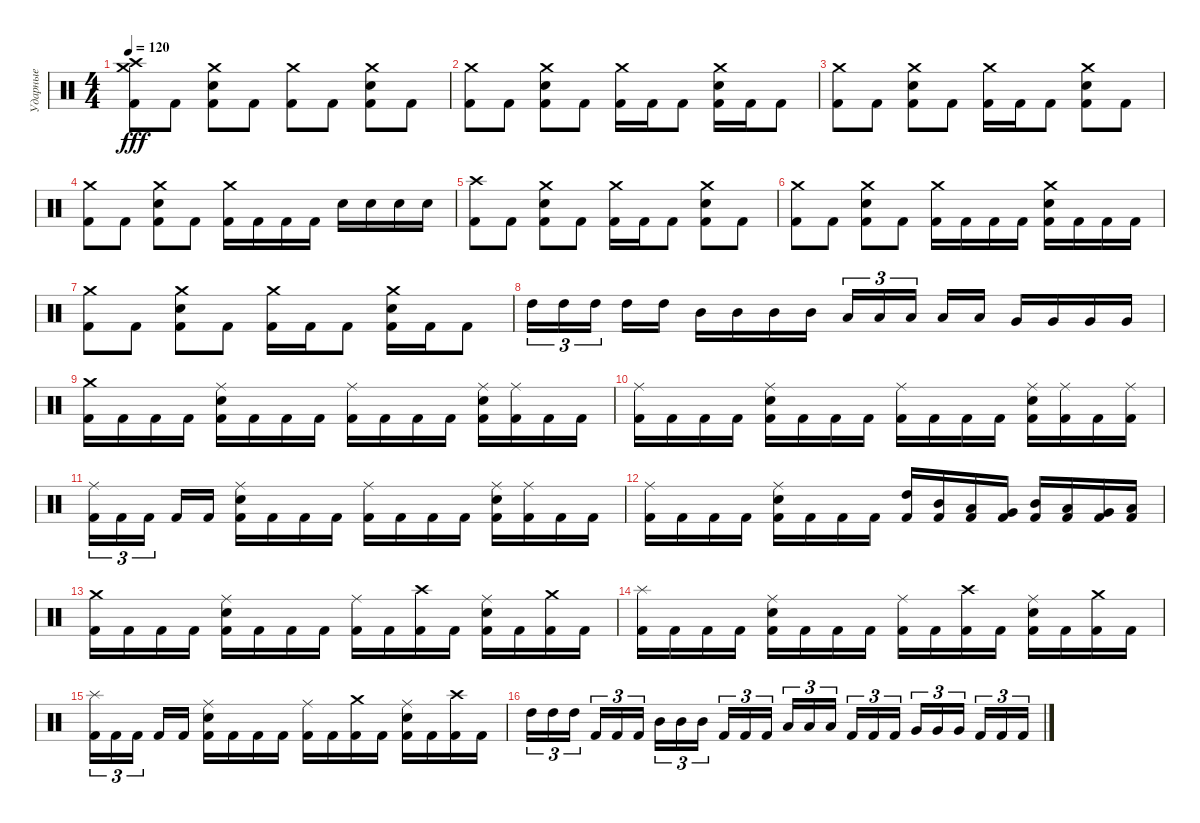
\track ("Ударные" "Ударные") {instrument percussion}
\staff {score}
\articulation defaults
\ts (4 4)
\tempo 120
\clef neutral
\ks c
("Crash high (hit)" "Crash medium (hit)" "Kick (hit) 2").8{dy fff} "Kick (hit) 2".8 ("Crash medium (hit)" "Electric Snare (hit)" "Kick (hit) 2").8 "Kick (hit) 2".8 ("Crash medium (hit)" "Kick (hit) 2").8 "Kick (hit) 2".8 ("Crash medium (hit)" "Electric Snare (hit)" "Kick (hit) 2").8 "Kick (hit) 2".8 |
("Crash medium (hit)" "Kick (hit) 2").8 "Kick (hit) 2".8 ("Crash medium (hit)" "Electric Snare (hit)" "Kick (hit) 2").8 "Kick (hit) 2".8 ("Crash medium (hit)" "Kick (hit) 2").16 "Kick (hit) 2".16 "Kick (hit) 2".8 ("Crash medium (hit)" "Electric Snare (hit)" "Kick (hit) 2").16 "Kick (hit) 2".16 "Kick (hit) 2".8 |
("Crash medium (hit)" "Kick (hit) 2").8 "Kick (hit) 2".8 ("Crash medium (hit)" "Electric Snare (hit)" "Kick (hit) 2").8 "Kick (hit) 2".8 ("Crash medium (hit)" "Kick (hit) 2").16 "Kick (hit) 2".16 "Kick (hit) 2".8 ("Crash medium (hit)" "Electric Snare (hit)" "Kick (hit) 2").8 "Kick (hit) 2".8 |
("Crash medium (hit)" "Kick (hit) 2").8 "Kick (hit) 2".8 ("Crash medium (hit)" "Electric Snare (hit)" "Kick (hit) 2").8 "Kick (hit) 2".8 ("Crash medium (hit)" "Kick (hit) 2").16 "Kick (hit) 2".16 "Kick (hit) 2".16 "Kick (hit) 2".16 "Electric Snare (hit)".16 "Electric Snare (hit)".16 "Electric Snare (hit)".16 "Electric Snare (hit)".16 |
("Crash high (hit)" "Kick (hit) 2").8 "Kick (hit) 2".8 ("Crash medium (hit)" "Electric Snare (hit)" "Kick (hit) 2").8 "Kick (hit) 2".8 ("Crash medium (hit)" "Kick (hit) 2").16 "Kick (hit) 2".16 "Kick (hit) 2".8 ("Crash medium (hit)" "Electric Snare (hit)" "Kick (hit) 2").8 "Kick (hit) 2".8 |
("Crash medium (hit)" "Kick (hit) 2").8 "Kick (hit) 2".8 ("Crash medium (hit)" "Electric Snare (hit)" "Kick (hit) 2").8 "Kick (hit) 2".8 ("Crash medium (hit)" "Kick (hit) 2").16 "Kick (hit) 2".16 "Kick (hit) 2".16 "Kick (hit) 2".16 ("Crash medium (hit)" "Electric Snare (hit)" "Kick (hit) 2").16 "Kick (hit) 2".16 "Kick (hit) 2".16 "Kick (hit) 2".16 |
("Crash medium (hit)" "Kick (hit) 2").8 "Kick (hit) 2".8 ("Crash medium (hit)" "Electric Snare (hit)" "Kick (hit) 2").8 "Kick (hit) 2".8 ("Crash medium (hit)" "Kick (hit) 2").16 "Kick (hit) 2".16 "Kick (hit) 2".8 ("Crash medium (hit)" "Electric Snare (hit)" "Kick (hit) 2").16 "Kick (hit) 2".16 "Kick (hit) 2".8 |
"High Tom (hit)".16{tu (3 2)} "High Tom (hit)".16{tu (3 2)} "High Tom (hit)".16{tu (3 2) beam splitsecondary} "High Tom (hit)".16 "High Tom (hit)".16 "Mid Tom (hit)".16 "Mid Tom (hit)".16 "Mid Tom (hit)".16 "Mid Tom (hit)".16 "Low Tom (hit)".16{tu (3 2)} "Low Tom (hit)".16{tu (3 2)} "Low Tom (hit)".16{tu (3 2) beam splitsecondary} "Low Tom (hit)".16 "Low Tom (hit)".16 "Very Low Tom (hit)".16 "Very Low Tom (hit)".16 "Very Low Tom (hit)".16 "Very Low Tom (hit)".16 |
("Crash medium (hit)" "Kick (hit) 2").16 "Kick (hit) 2".16 "Kick (hit) 2".16 "Kick (hit) 2".16 ("Ride (middle)" "Electric Snare (hit)" "Kick (hit) 2").16 "Kick (hit) 2".16 "Kick (hit) 2".16 "Kick (hit) 2".16 ("Ride (middle)" "Kick (hit) 2").16 "Kick (hit) 2".16 "Kick (hit) 2".16 "Kick (hit) 2".16 ("Ride (middle)" "Electric Snare (hit)" "Kick (hit) 2").16 ("Ride (middle)" "Kick (hit) 2").16 "Kick (hit) 2".16 "Kick (hit) 2".16 |
("Ride (middle)" "Kick (hit) 2").16 "Kick (hit) 2".16 "Kick (hit) 2".16 "Kick (hit) 2".16 ("Ride (middle)" "Electric Snare (hit)" "Kick (hit) 2").16 "Kick (hit) 2".16 "Kick (hit) 2".16 "Kick (hit) 2".16 ("Ride (middle)" "Kick (hit) 2").16 "Kick (hit) 2".16 "Kick (hit) 2".16 "Kick (hit) 2".16 ("Ride (middle)" "Electric Snare (hit)" "Kick (hit) 2").16 ("Ride (middle)" "Kick (hit) 2").16 "Kick (hit) 2".16 ("Ride (middle)" "Kick (hit) 2").16 |
("Ride (middle)" "Kick (hit) 2").16{tu (3 2)} "Kick (hit) 2".16{tu (3 2)} "Kick (hit) 2".16{tu (3 2) beam splitsecondary} "Kick (hit) 2".16 "Kick (hit) 2".16 ("Ride (middle)" "Electric Snare (hit)" "Kick (hit) 2").16 "Kick (hit) 2".16 "Kick (hit) 2".16 "Kick (hit) 2".16 ("Ride (middle)" "Kick (hit) 2").16 "Kick (hit) 2".16 "Kick (hit) 2".16 "Kick (hit) 2".16 ("Ride (middle)" "Electric Snare (hit)" "Kick (hit) 2").16 ("Ride (middle)" "Kick (hit) 2").16 "Kick (hit) 2".16 "Kick (hit) 2".16 |
("Ride (middle)" "Kick (hit) 2").16 "Kick (hit) 2".16 "Kick (hit) 2".16 "Kick (hit) 2".16 ("Ride (middle)" "Electric Snare (hit)" "Kick (hit) 2").16 "Kick (hit) 2".16 "Kick (hit) 2".16 "Kick (hit) 2".16 ("High Tom (hit)" "Kick (hit) 2").16 ("Mid Tom (hit)" "Kick (hit) 2").16 ("Low Tom (hit)" "Kick (hit) 2").16 ("Very Low Tom (hit)" "Kick (hit) 2").16 ("Mid Tom (hit)" "Kick (hit) 2").16 ("Low Tom (hit)" "Kick (hit) 2").16 ("Very Low Tom (hit)" "Kick (hit) 2").16 ("Low Floor Tom (hit)" "Kick (hit) 2").16 |
("Crash medium (hit)" "Kick (hit) 2").16 "Kick (hit) 2".16 "Kick (hit) 2".16 "Kick (hit) 2".16 ("Ride (middle)" "Electric Snare (hit)" "Kick (hit) 2").16 "Kick (hit) 2".16 "Kick (hit) 2".16 "Kick (hit) 2".16 ("Ride (middle)" "Kick (hit) 2").16 "Kick (hit) 2".16 ("Crash high (hit)" "Kick (hit) 2").16 "Kick (hit) 2".16 ("Ride (middle)" "Electric Snare (hit)" "Kick (hit) 2").16 "Kick (hit) 2".16 ("Crash medium (hit)" "Kick (hit) 2").16 "Kick (hit) 2".16 |
("Splash (hit)" "Kick (hit) 2").16 "Kick (hit) 2".16 "Kick (hit) 2".16 "Kick (hit) 2".16 ("Ride (middle)" "Electric Snare (hit)" "Kick (hit) 2").16 "Kick (hit) 2".16 "Kick (hit) 2".16 "Kick (hit) 2".16 ("Ride (middle)" "Kick (hit) 2").16 "Kick (hit) 2".16 ("Crash high (hit)" "Kick (hit) 2").16 "Kick (hit) 2".16 ("Ride (middle)" "Electric Snare (hit)" "Kick (hit) 2").16 "Kick (hit) 2".16 ("Crash medium (hit)" "Kick (hit) 2").16 "Kick (hit) 2".16 |
("Splash (hit)" "Kick (hit) 2").16{tu (3 2)} "Kick (hit) 2".16{tu (3 2)} "Kick (hit) 2".16{tu (3 2) beam splitsecondary} "Kick (hit) 2".16 "Kick (hit) 2".16 ("Ride (middle)" "Electric Snare (hit)" "Kick (hit) 2").16 "Kick (hit) 2".16 "Kick (hit) 2".16 "Kick (hit) 2".16 ("Ride (middle)" "Kick (hit) 2").16 "Kick (hit) 2".16 ("Crash medium (hit)" "Kick (hit) 2").16 "Kick (hit) 2".16 ("Ride (middle)" "Electric Snare (hit)" "Kick (hit) 2").16 "Kick (hit) 2".16 ("Crash high (hit)" "Kick (hit) 2").16 "Kick (hit) 2".16 |
"High Tom (hit)".16{tu (3 2)} "High Tom (hit)".16{tu (3 2)} "High Tom (hit)".16{tu (3 2) beam splitsecondary} "Kick (hit) 2".16{tu (3 2)} "Kick (hit) 2".16{tu (3 2)} "Kick (hit) 2".16{tu (3 2)} "Mid Tom (hit)".16{tu (3 2)} "Mid Tom (hit)".16{tu (3 2)} "Mid Tom (hit)".16{tu (3 2) beam splitsecondary} "Kick (hit) 2".16{tu (3 2)} "Kick (hit) 2".16{tu (3 2)} "Kick (hit) 2".16{tu (3 2)} "Low Tom (hit)".16{tu (3 2)} "Low Tom (hit)".16{tu (3 2)} "Low Tom (hit)".16{tu (3 2) beam splitsecondary} "Kick (hit) 2".16{tu (3 2)} "Kick (hit) 2".16{tu (3 2)} "Kick (hit) 2".16{tu (3 2)} "Very Low Tom (hit)".16{tu (3 2)} "Very Low Tom (hit)".16{tu (3 2)} "Very Low Tom (hit)".16{tu (3 2) beam splitsecondary} "Kick (hit) 2".16{tu (3 2)} "Kick (hit) 2".16{tu (3 2)} "Kick (hit) 2".16{tu (3 2)}
